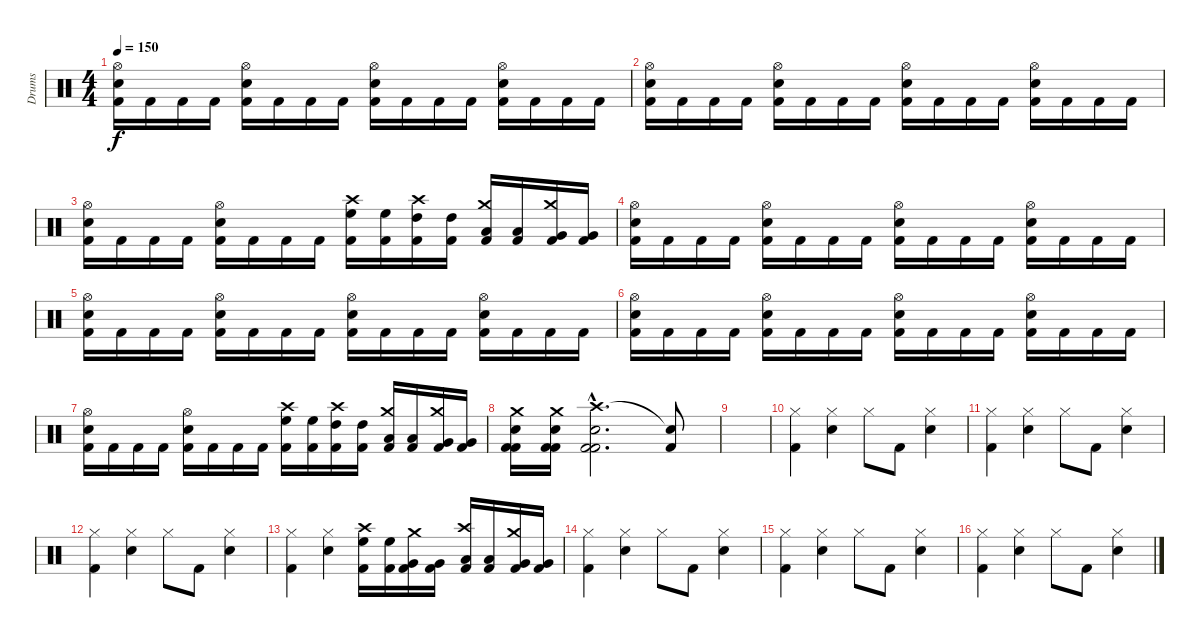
\track ("Drums" "Drums") {instrument percussion}
\staff {score}
\articulation defaults
\ts (4 4)
\tempo 150
\clef neutral
\ks c
("Hi-Hat (open)" "Snare (hit) 2" "Kick (hit) 2").16{dy f} "Kick (hit) 2".16 "Kick (hit) 2".16 "Kick (hit) 2".16 ("Hi-Hat (open)" "Snare (hit) 2" "Kick (hit) 2").16 "Kick (hit) 2".16 "Kick (hit) 2".16 "Kick (hit) 2".16 ("Hi-Hat (open)" "Snare (hit) 2" "Kick (hit) 2").16 "Kick (hit) 2".16 "Kick (hit) 2".16 "Kick (hit) 2".16 ("Hi-Hat (open)" "Snare (hit) 2" "Kick (hit) 2").16 "Kick (hit) 2".16 "Kick (hit) 2".16 "Kick (hit) 2".16 |
("Hi-Hat (open)" "Snare (hit) 2" "Kick (hit) 2").16 "Kick (hit) 2".16 "Kick (hit) 2".16 "Kick (hit) 2".16 ("Hi-Hat (open)" "Snare (hit) 2" "Kick (hit) 2").16 "Kick (hit) 2".16 "Kick (hit) 2".16 "Kick (hit) 2".16 ("Hi-Hat (open)" "Snare (hit) 2" "Kick (hit) 2").16 "Kick (hit) 2".16 "Kick (hit) 2".16 "Kick (hit) 2".16 ("Hi-Hat (open)" "Snare (hit) 2" "Kick (hit) 2").16 "Kick (hit) 2".16 "Kick (hit) 2".16 "Kick (hit) 2".16 |
("Hi-Hat (open)" "Snare (hit) 2" "Kick (hit) 2").16 "Kick (hit) 2".16 "Kick (hit) 2".16 "Kick (hit) 2".16 ("Hi-Hat (open)" "Snare (hit) 2" "Kick (hit) 2").16 "Kick (hit) 2".16 "Kick (hit) 2".16 "Kick (hit) 2".16 ("Crash high (hit)" "High Floor Tom (hit)" "Kick (hit) 2").16 ("High Floor Tom (hit)" "Kick (hit) 2").16 ("Crash high (hit)" "High Tom (hit)" "Kick (hit) 2").16 ("High Tom (hit)" "Kick (hit) 2").16 ("Crash medium (hit)" "Low Tom (hit)" "Kick (hit) 2").16 ("Low Tom (hit)" "Kick (hit) 2").16 ("Crash medium (hit)" "Very Low Tom (hit)" "Kick (hit) 2").16 ("Very Low Tom (hit)" "Kick (hit) 2").16 |
("Hi-Hat (open)" "Snare (hit) 2" "Kick (hit) 2").16 "Kick (hit) 2".16 "Kick (hit) 2".16 "Kick (hit) 2".16 ("Hi-Hat (open)" "Snare (hit) 2" "Kick (hit) 2").16 "Kick (hit) 2".16 "Kick (hit) 2".16 "Kick (hit) 2".16 ("Hi-Hat (open)" "Snare (hit) 2" "Kick (hit) 2").16 "Kick (hit) 2".16 "Kick (hit) 2".16 "Kick (hit) 2".16 ("Hi-Hat (open)" "Snare (hit) 2" "Kick (hit) 2").16 "Kick (hit) 2".16 "Kick (hit) 2".16 "Kick (hit) 2".16 |
("Hi-Hat (open)" "Snare (hit) 2" "Kick (hit) 2").16 "Kick (hit) 2".16 "Kick (hit) 2".16 "Kick (hit) 2".16 ("Hi-Hat (open)" "Snare (hit) 2" "Kick (hit) 2").16 "Kick (hit) 2".16 "Kick (hit) 2".16 "Kick (hit) 2".16 ("Hi-Hat (open)" "Snare (hit) 2" "Kick (hit) 2").16 "Kick (hit) 2".16 "Kick (hit) 2".16 "Kick (hit) 2".16 ("Hi-Hat (open)" "Snare (hit) 2" "Kick (hit) 2").16 "Kick (hit) 2".16 "Kick (hit) 2".16 "Kick (hit) 2".16 |
("Hi-Hat (open)" "Snare (hit) 2" "Kick (hit) 2").16 "Kick (hit) 2".16 "Kick (hit) 2".16 "Kick (hit) 2".16 ("Hi-Hat (open)" "Snare (hit) 2" "Kick (hit) 2").16 "Kick (hit) 2".16 "Kick (hit) 2".16 "Kick (hit) 2".16 ("Hi-Hat (open)" "Snare (hit) 2" "Kick (hit) 2").16 "Kick (hit) 2".16 "Kick (hit) 2".16 "Kick (hit) 2".16 ("Hi-Hat (open)" "Snare (hit) 2" "Kick (hit) 2").16 "Kick (hit) 2".16 "Kick (hit) 2".16 "Kick (hit) 2".16 |
("Hi-Hat (open)" "Snare (hit) 2" "Kick (hit) 2").16 "Kick (hit) 2".16 "Kick (hit) 2".16 "Kick (hit) 2".16 ("Hi-Hat (open)" "Snare (hit) 2" "Kick (hit) 2").16 "Kick (hit) 2".16 "Kick (hit) 2".16 "Kick (hit) 2".16 ("Crash high (hit)" "High Floor Tom (hit)" "Kick (hit) 2").16 ("High Floor Tom (hit)" "Kick (hit) 2").16 ("Crash high (hit)" "High Tom (hit)" "Kick (hit) 2").16 ("High Tom (hit)" "Kick (hit) 2").16 ("Crash medium (hit)" "Low Tom (hit)" "Kick (hit) 2").16 ("Low Tom (hit)" "Kick (hit) 2").16 ("Crash medium (hit)" "Very Low Tom (hit)" "Kick (hit) 2").16 ("Very Low Tom (hit)" "Kick (hit) 2").16 |
("Crash medium (hit)" "Snare (hit) 2" "Kick (hit) 2" "Kick (hit) 2").16 ("Crash medium (hit)" "Snare (hit) 2" "Kick (hit) 2" "Kick (hit) 2").16 ("Crash high (hit)"{hac} "Snare (hit) 2"{hac} "Kick (hit) 2"{hac} "Kick (hit) 2"{hac}).2{d} ("Snare (hit) 2"{t} "Kick (hit) 2").8 |
|
("Hi-Hat (closed)" "Kick (hit) 2").4 ("Hi-Hat (closed)" "Snare (hit) 2").4 "Hi-Hat (closed)".8 "Kick (hit) 2".8 ("Hi-Hat (closed)" "Snare (hit) 2").4 |
("Hi-Hat (closed)" "Kick (hit) 2").4 ("Hi-Hat (closed)" "Snare (hit) 2").4 "Hi-Hat (closed)".8 "Kick (hit) 2".8 ("Hi-Hat (closed)" "Snare (hit) 2").4 |
("Hi-Hat (closed)" "Kick (hit) 2").4 ("Hi-Hat (closed)" "Snare (hit) 2").4 "Hi-Hat (closed)".8 "Kick (hit) 2".8 ("Hi-Hat (closed)" "Snare (hit) 2").4 |
("Hi-Hat (closed)" "Kick (hit) 2").4 ("Hi-Hat (closed)" "Snare (hit) 2").4 ("Crash high (hit)" "High Floor Tom (hit)" "Kick (hit) 2").16 ("High Floor Tom (hit)" "Kick (hit) 2").16 ("Crash medium (hit)" "Very Low Tom (hit)" "Kick (hit) 2").16 ("Very Low Tom (hit)" "Kick (hit) 2").16 ("Crash high (hit)" "Low Tom (hit)" "Kick (hit) 2").16 ("Low Tom (hit)" "Kick (hit) 2").16 ("Crash medium (hit)" "Very Low Tom (hit)" "Kick (hit) 2").16 ("Very Low Tom (hit)" "Kick (hit) 2").16 |
("Hi-Hat (closed)" "Kick (hit) 2").4 ("Hi-Hat (closed)" "Snare (hit) 2").4 "Hi-Hat (closed)".8 "Kick (hit) 2".8 ("Hi-Hat (closed)" "Snare (hit) 2").4 |
("Hi-Hat (closed)" "Kick (hit) 2").4 ("Hi-Hat (closed)" "Snare (hit) 2").4 "Hi-Hat (closed)".8 "Kick (hit) 2".8 ("Hi-Hat (closed)" "Snare (hit) 2").4 |
("Hi-Hat (closed)" "Kick (hit) 2").4 ("Hi-Hat (closed)" "Snare (hit) 2").4 "Hi-Hat (closed)".8 "Kick (hit) 2".8 ("Hi-Hat (closed)" "Snare (hit) 2").4
